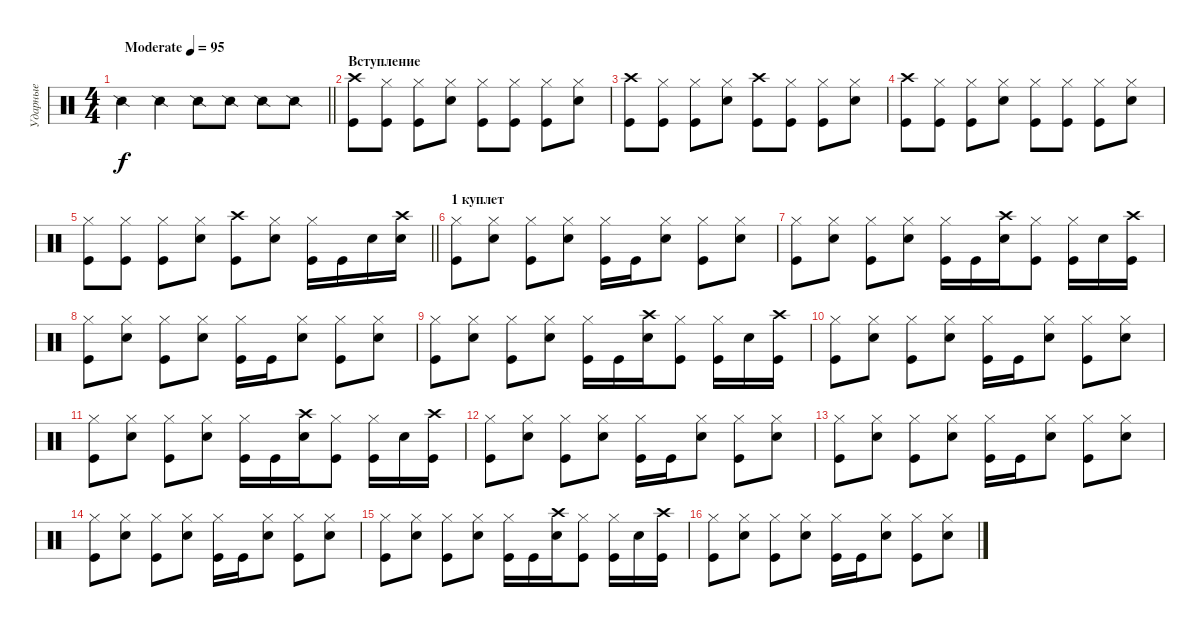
\track ("Ударные" "Ударные") {instrument percussion}
\staff {score}
\articulation defaults
\ts (4 4)
\tempo (95 "Moderate")
\clef neutral
\barLineRight lightlight
\ks c "Snare (side stick) 2".4{dy f} "Snare (side stick) 2".4 "Snare (side stick) 2".8 "Snare (side stick) 2".8 "Snare (side stick) 2".8 "Snare (side stick) 2".8
|
\section ("" "Вступление")
("Crash high (hit)" "Kick (hit)").8 ("Hi-Hat (closed)" "Kick (hit)").8 ("Hi-Hat (closed)" "Kick (hit)").8 ("Hi-Hat (closed)" "Snare (hit) 2").8 ("Hi-Hat (closed)" "Kick (hit)").8 ("Hi-Hat (closed)" "Kick (hit)").8 ("Hi-Hat (closed)" "Kick (hit)").8 ("Hi-Hat (closed)" "Snare (hit) 2").8 |
("Crash high (hit)" "Kick (hit)").8 ("Hi-Hat (closed)" "Kick (hit)").8 ("Hi-Hat (closed)" "Kick (hit)").8 ("Hi-Hat (closed)" "Snare (hit) 2").8 ("Crash high (hit)" "Kick (hit)").8 ("Hi-Hat (closed)" "Kick (hit)").8 ("Hi-Hat (closed)" "Kick (hit)").8 ("Hi-Hat (closed)" "Snare (hit) 2").8 |
("Crash high (hit)" "Kick (hit)").8 ("Hi-Hat (closed)" "Kick (hit)").8 ("Hi-Hat (closed)" "Kick (hit)").8 ("Hi-Hat (closed)" "Snare (hit) 2").8 ("Hi-Hat (closed)" "Kick (hit)").8 ("Hi-Hat (closed)" "Kick (hit)").8 ("Hi-Hat (closed)" "Kick (hit)").8 ("Hi-Hat (closed)" "Snare (hit) 2").8 |
\barLineRight lightlight
("Hi-Hat (closed)" "Kick (hit)").8 ("Hi-Hat (closed)" "Kick (hit)").8 ("Hi-Hat (closed)" "Kick (hit)").8 ("Hi-Hat (closed)" "Snare (hit) 2").8 ("Crash high (hit)" "Kick (hit)").8 ("Hi-Hat (closed)" "Snare (hit) 2").8 ("Hi-Hat (closed)" "Kick (hit)").16 "Kick (hit)".16 "Snare (hit) 2".16 ("Crash high (hit)" "Snare (hit) 2").16 |
\section ("" "1 куплет")
("Hi-Hat (closed)" "Kick (hit)").8 ("Hi-Hat (closed)" "Snare (hit) 2").8 ("Hi-Hat (closed)" "Kick (hit)").8 ("Hi-Hat (closed)" "Snare (hit) 2").8 ("Hi-Hat (closed)" "Kick (hit)").16 "Kick (hit)".16 ("Hi-Hat (closed)" "Snare (hit) 2").8 ("Hi-Hat (closed)" "Kick (hit)").8 ("Hi-Hat (closed)" "Snare (hit) 2").8 |
("Hi-Hat (closed)" "Kick (hit)").8 ("Hi-Hat (closed)" "Snare (hit) 2").8 ("Hi-Hat (closed)" "Kick (hit)").8 ("Hi-Hat (closed)" "Snare (hit) 2").8 ("Hi-Hat (closed)" "Kick (hit)").16 "Kick (hit)".16 ("Crash high (hit)" "Snare (hit) 2").16 ("Hi-Hat (closed)" "Kick (hit)").8 ("Hi-Hat (closed)" "Kick (hit)").16 "Snare (hit) 2".16 ("Crash high (hit)" "Kick (hit)").16 |
("Hi-Hat (closed)" "Kick (hit)").8 ("Hi-Hat (closed)" "Snare (hit) 2").8 ("Hi-Hat (closed)" "Kick (hit)").8 ("Hi-Hat (closed)" "Snare (hit) 2").8 ("Hi-Hat (closed)" "Kick (hit)").16 "Kick (hit)".16 ("Hi-Hat (closed)" "Snare (hit) 2").8 ("Hi-Hat (closed)" "Kick (hit)").8 ("Hi-Hat (closed)" "Snare (hit) 2").8 |
("Hi-Hat (closed)" "Kick (hit)").8 ("Hi-Hat (closed)" "Snare (hit) 2").8 ("Hi-Hat (closed)" "Kick (hit)").8 ("Hi-Hat (closed)" "Snare (hit) 2").8 ("Hi-Hat (closed)" "Kick (hit)").16 "Kick (hit)".16 ("Crash high (hit)" "Snare (hit) 2").16 ("Hi-Hat (closed)" "Kick (hit)").8 ("Hi-Hat (closed)" "Kick (hit)").16 "Snare (hit) 2".16 ("Crash high (hit)" "Kick (hit)").16 |
("Hi-Hat (closed)" "Kick (hit)").8 ("Hi-Hat (closed)" "Snare (hit) 2").8 ("Hi-Hat (closed)" "Kick (hit)").8 ("Hi-Hat (closed)" "Snare (hit) 2").8 ("Hi-Hat (closed)" "Kick (hit)").16 "Kick (hit)".16 ("Hi-Hat (closed)" "Snare (hit) 2").8 ("Hi-Hat (closed)" "Kick (hit)").8 ("Hi-Hat (closed)" "Snare (hit) 2").8 |
("Hi-Hat (closed)" "Kick (hit)").8 ("Hi-Hat (closed)" "Snare (hit) 2").8 ("Hi-Hat (closed)" "Kick (hit)").8 ("Hi-Hat (closed)" "Snare (hit) 2").8 ("Hi-Hat (closed)" "Kick (hit)").16 "Kick (hit)".16 ("Crash high (hit)" "Snare (hit) 2").16 ("Hi-Hat (closed)" "Kick (hit)").8 ("Hi-Hat (closed)" "Kick (hit)").16 "Snare (hit) 2".16 ("Crash high (hit)" "Kick (hit)").16 |
("Hi-Hat (closed)" "Kick (hit)").8 ("Hi-Hat (closed)" "Snare (hit) 2").8 ("Hi-Hat (closed)" "Kick (hit)").8 ("Hi-Hat (closed)" "Snare (hit) 2").8 ("Hi-Hat (closed)" "Kick (hit)").16 "Kick (hit)".16 ("Hi-Hat (closed)" "Snare (hit) 2").8 ("Hi-Hat (closed)" "Kick (hit)").8 ("Hi-Hat (closed)" "Snare (hit) 2").8 |
("Hi-Hat (closed)" "Kick (hit)").8 ("Hi-Hat (closed)" "Snare (hit) 2").8 ("Hi-Hat (closed)" "Kick (hit)").8 ("Hi-Hat (closed)" "Snare (hit) 2").8 ("Hi-Hat (closed)" "Kick (hit)").16 "Kick (hit)".16 ("Hi-Hat (closed)" "Snare (hit) 2").8 ("Hi-Hat (closed)" "Kick (hit)").8 ("Hi-Hat (closed)" "Snare (hit) 2").8 |
("Hi-Hat (closed)" "Kick (hit)").8 ("Hi-Hat (closed)" "Snare (hit) 2").8 ("Hi-Hat (closed)" "Kick (hit)").8 ("Hi-Hat (closed)" "Snare (hit) 2").8 ("Hi-Hat (closed)" "Kick (hit)").16 "Kick (hit)".16 ("Hi-Hat (closed)" "Snare (hit) 2").8 ("Hi-Hat (closed)" "Kick (hit)").8 ("Hi-Hat (closed)" "Snare (hit) 2").8 |
("Hi-Hat (closed)" "Kick (hit)").8 ("Hi-Hat (closed)" "Snare (hit) 2").8 ("Hi-Hat (closed)" "Kick (hit)").8 ("Hi-Hat (closed)" "Snare (hit) 2").8 ("Hi-Hat (closed)" "Kick (hit)").16 "Kick (hit)".16 ("Crash high (hit)" "Snare (hit) 2").16 ("Hi-Hat (closed)" "Kick (hit)").8 ("Hi-Hat (closed)" "Kick (hit)").16 "Snare (hit) 2".16 ("Crash high (hit)" "Kick (hit)").16 |
("Hi-Hat (closed)" "Kick (hit)").8 ("Hi-Hat (closed)" "Snare (hit) 2").8 ("Hi-Hat (closed)" "Kick (hit)").8 ("Hi-Hat (closed)" "Snare (hit) 2").8 ("Hi-Hat (closed)" "Kick (hit)").16 "Kick (hit)".16 ("Hi-Hat (closed)" "Snare (hit) 2").8 ("Hi-Hat (closed)" "Kick (hit)").8 ("Hi-Hat (closed)" "Snare (hit) 2").8
